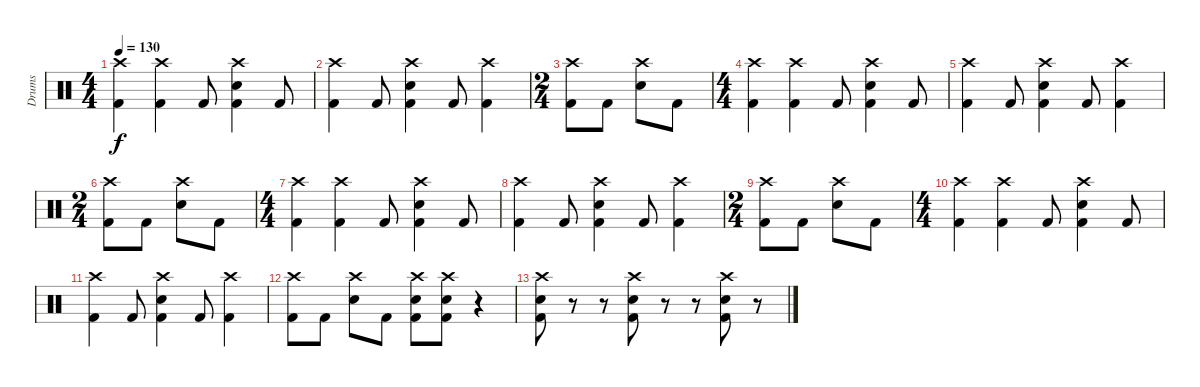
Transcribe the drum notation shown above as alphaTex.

\track ("Drums" "Drums") {instrument percussion}
\staff {score}
\articulation defaults
\ts (4 4)
\tempo 130
\clef neutral
\ks c
("Crash high (hit)" "Kick (hit) 2").4{dy f} ("Crash high (hit)" "Kick (hit) 2").4 "Kick (hit) 2".8 ("Crash high (hit)" "Electric Snare (hit)" "Kick (hit) 2").4 "Kick (hit) 2".8 |
("Crash high (hit)" "Kick (hit) 2").4 "Kick (hit) 2".8 ("Crash high (hit)" "Electric Snare (hit)" "Kick (hit) 2").4 "Kick (hit) 2".8 ("Crash high (hit)" "Kick (hit) 2").4 |
\ts (2 4)
("Crash high (hit)" "Kick (hit) 2").8 "Kick (hit) 2".8 ("Crash high (hit)" "Electric Snare (hit)").8 "Kick (hit) 2".8 |
\ts (4 4)
("Crash high (hit)" "Kick (hit) 2").4 ("Crash high (hit)" "Kick (hit) 2").4 "Kick (hit) 2".8 ("Crash high (hit)" "Electric Snare (hit)" "Kick (hit) 2").4 "Kick (hit) 2".8 |
("Crash high (hit)" "Kick (hit) 2").4 "Kick (hit) 2".8 ("Crash high (hit)" "Electric Snare (hit)" "Kick (hit) 2").4 "Kick (hit) 2".8 ("Crash high (hit)" "Kick (hit) 2").4 |
\ts (2 4)
("Crash high (hit)" "Kick (hit) 2").8 "Kick (hit) 2".8 ("Crash high (hit)" "Electric Snare (hit)").8 "Kick (hit) 2".8 |
\ts (4 4)
("Crash high (hit)" "Kick (hit) 2").4 ("Crash high (hit)" "Kick (hit) 2").4 "Kick (hit) 2".8 ("Crash high (hit)" "Electric Snare (hit)" "Kick (hit) 2").4 "Kick (hit) 2".8 |
("Crash high (hit)" "Kick (hit) 2").4 "Kick (hit) 2".8 ("Crash high (hit)" "Electric Snare (hit)" "Kick (hit) 2").4 "Kick (hit) 2".8 ("Crash high (hit)" "Kick (hit) 2").4 |
\ts (2 4)
("Crash high (hit)" "Kick (hit) 2").8 "Kick (hit) 2".8 ("Crash high (hit)" "Electric Snare (hit)").8 "Kick (hit) 2".8 |
\ts (4 4)
("Crash high (hit)" "Kick (hit) 2").4 ("Crash high (hit)" "Kick (hit) 2").4 "Kick (hit) 2".8 ("Crash high (hit)" "Electric Snare (hit)" "Kick (hit) 2").4 "Kick (hit) 2".8 |
("Crash high (hit)" "Kick (hit) 2").4 "Kick (hit) 2".8 ("Crash high (hit)" "Electric Snare (hit)" "Kick (hit) 2").4 "Kick (hit) 2".8 ("Crash high (hit)" "Kick (hit) 2").4 |
("Crash high (hit)" "Kick (hit) 2").8 "Kick (hit) 2".8 ("Crash high (hit)" "Electric Snare (hit)").8 "Kick (hit) 2".8 ("Crash high (hit)" "Electric Snare (hit)" "Kick (hit) 2").8 ("Crash high (hit)" "Electric Snare (hit)" "Kick (hit) 2").8 r.4 |
("Crash high (hit)" "Electric Snare (hit)" "Kick (hit) 2").8 r.8 r.8 ("Crash high (hit)" "Electric Snare (hit)" "Kick (hit) 2").8 r.8 r.8 ("Crash high (hit)" "Electric Snare (hit)" "Kick (hit) 2").8 r.8
